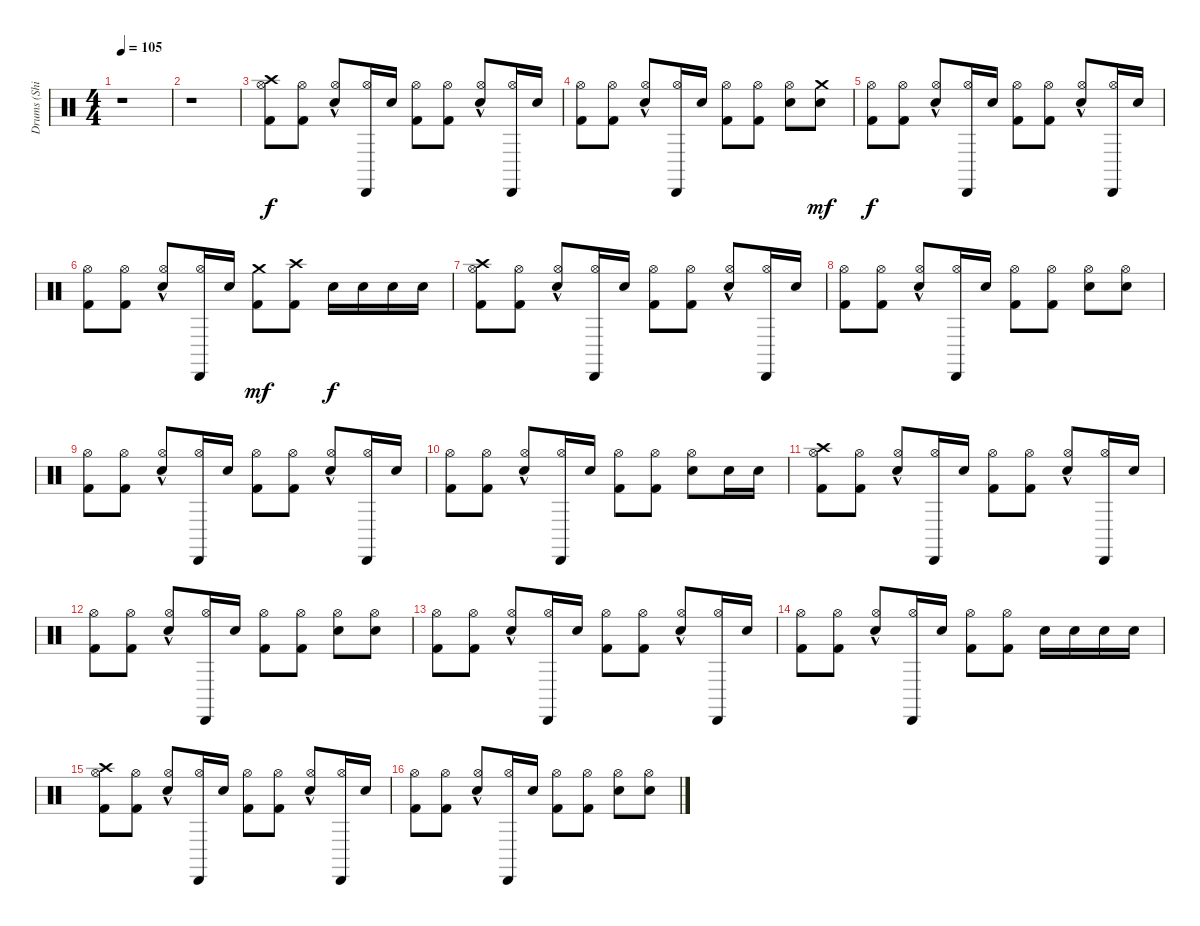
\track ("Drums (Shinya)" "Drums (Shi") {instrument percussion}
\staff {score}
\articulation defaults
\ts (4 4)
\tempo 105
\clef neutral
\ks c
r.1{dy f} |
r.1 |
("Crash high (hit)" "Kick (hit) 2" "Hi-Hat (open)").8 ("Hi-Hat (open)" "Kick (hit) 2").8 ("Hi-Hat (open)" "Electric Snare (hit)"{hac}).8 ("Hi-Hat (open)" "Cabasa (hit)").16 "Electric Snare (hit)".16 ("Kick (hit) 2" "Hi-Hat (open)").8 ("Kick (hit) 2" "Hi-Hat (open)").8 ("Electric Snare (hit)"{hac} "Hi-Hat (open)").8 ("Cabasa (hit)" "Hi-Hat (open)").16 "Electric Snare (hit)".16 |
("Kick (hit) 2" "Hi-Hat (open)").8 ("Kick (hit) 2" "Hi-Hat (open)").8 ("Electric Snare (hit)"{hac} "Hi-Hat (open)").8 ("Hi-Hat (open)" "Cabasa (hit)").16 "Electric Snare (hit)".16 ("Kick (hit) 2" "Hi-Hat (open)").8 ("Kick (hit) 2" "Hi-Hat (open)").8 ("Hi-Hat (open)" "Electric Snare (hit)").8 ("Crash medium (hit)" "Electric Snare (hit)").8{dy mf} |
("Kick (hit) 2" "Hi-Hat (open)").8{dy f} ("Hi-Hat (open)" "Kick (hit) 2").8 ("Electric Snare (hit)"{hac} "Hi-Hat (open)").8 ("Hi-Hat (open)" "Cabasa (hit)").16 "Electric Snare (hit)".16 ("Kick (hit) 2" "Hi-Hat (open)").8 ("Kick (hit) 2" "Hi-Hat (open)").8 ("Electric Snare (hit)"{hac} "Hi-Hat (open)").8 ("Hi-Hat (open)" "Cabasa (hit)").16 "Electric Snare (hit)".16 |
("Kick (hit) 2" "Hi-Hat (open)").8 ("Hi-Hat (open)" "Kick (hit) 2").8 ("Hi-Hat (open)" "Electric Snare (hit)"{hac}).8 ("Cabasa (hit)" "Hi-Hat (open)").16 "Electric Snare (hit)".16 ("Crash medium (hit)" "Kick (hit) 2").8{dy mf} ("Crash high (hit)" "Kick (hit) 2").8 "Electric Snare (hit)".16{dy f} "Electric Snare (hit)".16 "Electric Snare (hit)".16 "Electric Snare (hit)".16 |
("Hi-Hat (open)" "Crash high (hit)" "Kick (hit) 2").8 ("Hi-Hat (open)" "Kick (hit) 2").8 ("Hi-Hat (open)" "Electric Snare (hit)"{hac}).8 ("Hi-Hat (open)" "Cabasa (hit)").16 "Electric Snare (hit)".16 ("Kick (hit) 2" "Hi-Hat (open)").8 ("Hi-Hat (open)" "Kick (hit) 2").8 ("Electric Snare (hit)"{hac} "Hi-Hat (open)").8 ("Hi-Hat (open)" "Cabasa (hit)").16 "Electric Snare (hit)".16 |
("Hi-Hat (open)" "Kick (hit) 2").8 ("Hi-Hat (open)" "Kick (hit) 2").8 ("Electric Snare (hit)"{hac} "Hi-Hat (open)").8 ("Hi-Hat (open)" "Cabasa (hit)").16 "Electric Snare (hit)".16 ("Hi-Hat (open)" "Kick (hit) 2").8 ("Hi-Hat (open)" "Kick (hit) 2").8 ("Electric Snare (hit)" "Hi-Hat (open)").8 ("Hi-Hat (open)" "Electric Snare (hit)").8 |
("Hi-Hat (open)" "Kick (hit) 2").8 ("Hi-Hat (open)" "Kick (hit) 2").8 ("Hi-Hat (open)" "Electric Snare (hit)"{hac}).8 ("Hi-Hat (open)" "Cabasa (hit)").16 "Electric Snare (hit)".16 ("Kick (hit) 2" "Hi-Hat (open)").8 ("Hi-Hat (open)" "Kick (hit) 2").8 ("Electric Snare (hit)"{hac} "Hi-Hat (open)").8 ("Hi-Hat (open)" "Cabasa (hit)").16 "Electric Snare (hit)".16 |
("Hi-Hat (open)" "Kick (hit) 2").8 ("Hi-Hat (open)" "Kick (hit) 2").8 ("Electric Snare (hit)"{hac} "Hi-Hat (open)").8 ("Hi-Hat (open)" "Cabasa (hit)").16 "Electric Snare (hit)".16 ("Hi-Hat (open)" "Kick (hit) 2").8 ("Hi-Hat (open)" "Kick (hit) 2").8 ("Electric Snare (hit)" "Hi-Hat (open)").8 "Electric Snare (hit)".16 "Electric Snare (hit)".16 |
("Hi-Hat (open)" "Crash high (hit)" "Kick (hit) 2").8 ("Hi-Hat (open)" "Kick (hit) 2").8 ("Hi-Hat (open)" "Electric Snare (hit)"{hac}).8 ("Hi-Hat (open)" "Cabasa (hit)").16 "Electric Snare (hit)".16 ("Kick (hit) 2" "Hi-Hat (open)").8 ("Hi-Hat (open)" "Kick (hit) 2").8 ("Electric Snare (hit)"{hac} "Hi-Hat (open)").8 ("Hi-Hat (open)" "Cabasa (hit)").16 "Electric Snare (hit)".16 |
("Hi-Hat (open)" "Kick (hit) 2").8 ("Hi-Hat (open)" "Kick (hit) 2").8 ("Electric Snare (hit)"{hac} "Hi-Hat (open)").8 ("Hi-Hat (open)" "Cabasa (hit)").16 "Electric Snare (hit)".16 ("Hi-Hat (open)" "Kick (hit) 2").8 ("Hi-Hat (open)" "Kick (hit) 2").8 ("Electric Snare (hit)" "Hi-Hat (open)").8 ("Hi-Hat (open)" "Electric Snare (hit)").8 |
("Hi-Hat (open)" "Kick (hit) 2").8 ("Hi-Hat (open)" "Kick (hit) 2").8 ("Hi-Hat (open)" "Electric Snare (hit)"{hac}).8 ("Hi-Hat (open)" "Cabasa (hit)").16 "Electric Snare (hit)".16 ("Kick (hit) 2" "Hi-Hat (open)").8 ("Hi-Hat (open)" "Kick (hit) 2").8 ("Electric Snare (hit)"{hac} "Hi-Hat (open)").8 ("Hi-Hat (open)" "Cabasa (hit)").16 "Electric Snare (hit)".16 |
("Hi-Hat (open)" "Kick (hit) 2").8 ("Hi-Hat (open)" "Kick (hit) 2").8 ("Electric Snare (hit)"{hac} "Hi-Hat (open)").8 ("Hi-Hat (open)" "Cabasa (hit)").16 "Electric Snare (hit)".16 ("Hi-Hat (open)" "Kick (hit) 2").8 ("Hi-Hat (open)" "Kick (hit) 2").8 "Electric Snare (hit)".16 "Electric Snare (hit)".16 "Electric Snare (hit)".16 "Electric Snare (hit)".16 |
("Hi-Hat (open)" "Crash high (hit)" "Kick (hit) 2").8 ("Hi-Hat (open)" "Kick (hit) 2").8 ("Hi-Hat (open)" "Electric Snare (hit)"{hac}).8 ("Hi-Hat (open)" "Cabasa (hit)").16 "Electric Snare (hit)".16 ("Kick (hit) 2" "Hi-Hat (open)").8 ("Hi-Hat (open)" "Kick (hit) 2").8 ("Electric Snare (hit)"{hac} "Hi-Hat (open)").8 ("Hi-Hat (open)" "Cabasa (hit)").16 "Electric Snare (hit)".16 |
("Hi-Hat (open)" "Kick (hit) 2").8 ("Hi-Hat (open)" "Kick (hit) 2").8 ("Electric Snare (hit)"{hac} "Hi-Hat (open)").8 ("Hi-Hat (open)" "Cabasa (hit)").16 "Electric Snare (hit)".16 ("Hi-Hat (open)" "Kick (hit) 2").8 ("Hi-Hat (open)" "Kick (hit) 2").8 ("Electric Snare (hit)" "Hi-Hat (open)").8 ("Hi-Hat (open)" "Electric Snare (hit)").8
